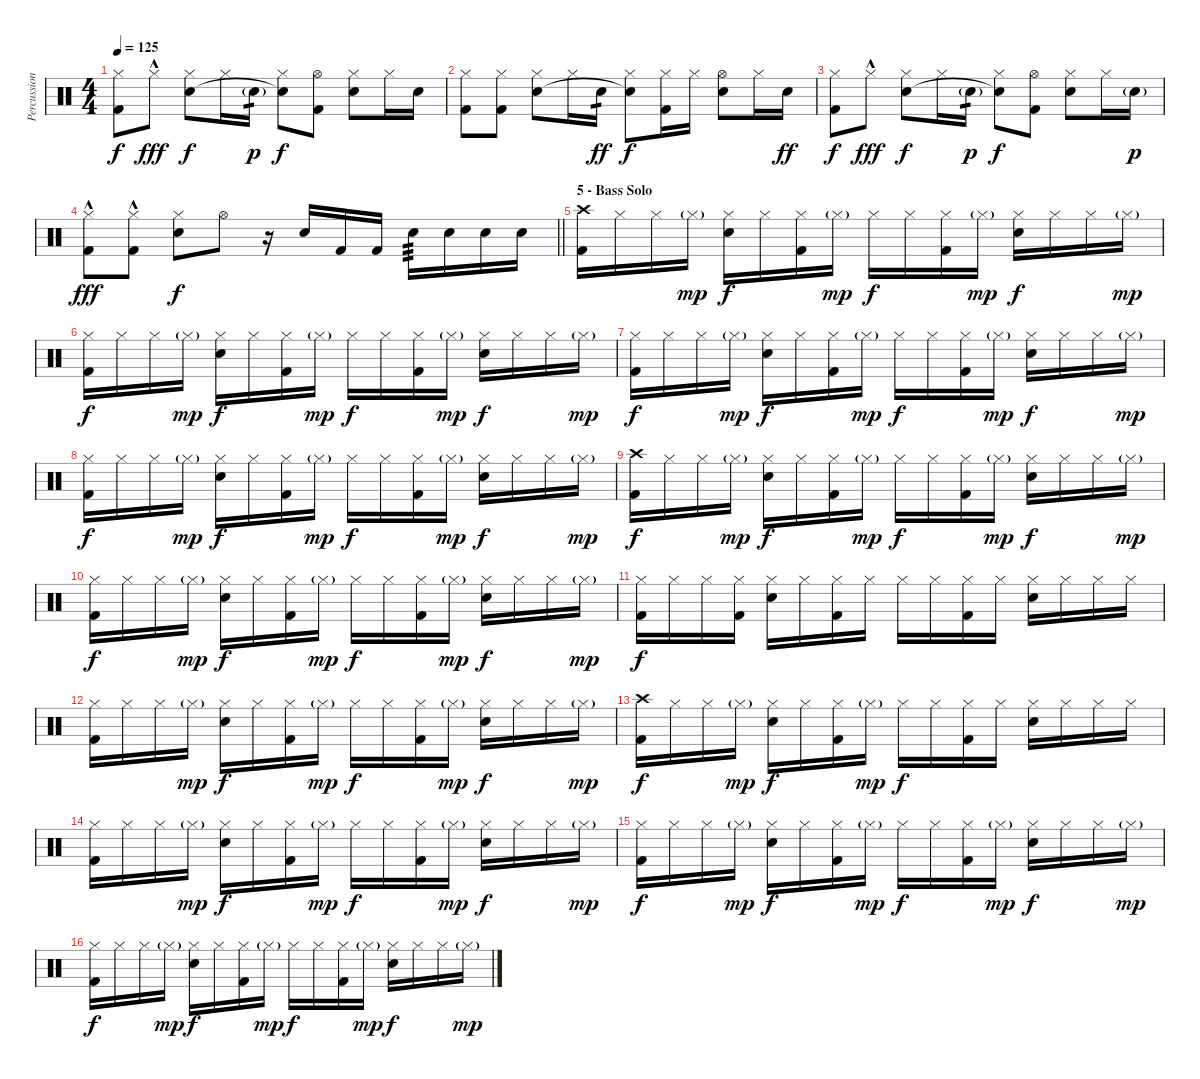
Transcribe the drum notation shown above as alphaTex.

\track ("Percussion" "Percussion") {instrument percussion}
\staff {score}
\articulation defaults
\ts (4 4)
\tempo 125
\clef neutral
\ks c
("Hi-Hat (closed)" "Kick (hit) 2").8{dy f} "Hi-Hat (closed)"{hac}.8{dy fff} ("Hi-Hat (closed)" "Snare (hit) 2").8{dy f} "Hi-Hat (closed)".16 "Snare (hit) 2"{g}.16{tp 1 dy p} ("Hi-Hat (closed)" "Snare (hit)"{t}).8{dy f} ("Hi-Hat (open)" "Kick (hit) 2").8 ("Hi-Hat (closed)" "Snare (hit) 2").8 "Hi-Hat (closed)".16 "Snare (hit) 2".16 |
("Hi-Hat (closed)" "Kick (hit) 2").8 ("Hi-Hat (closed)" "Kick (hit) 2").8 ("Hi-Hat (closed)" "Snare (hit) 2").8 "Hi-Hat (closed)".16 "Snare (hit) 2".16{tp 1 dy ff} ("Hi-Hat (closed)" "Snare (hit)"{t}).8{dy f} ("Hi-Hat (closed)" "Kick (hit) 2").16 "Hi-Hat (closed)".16 ("Hi-Hat (open)" "Snare (hit) 2").8 "Hi-Hat (closed)".16 "Snare (hit) 2".16{dy ff} |
("Hi-Hat (closed)" "Kick (hit) 2").8{dy f} "Hi-Hat (closed)"{hac}.8{dy fff} ("Hi-Hat (closed)" "Snare (hit) 2").8{dy f} "Hi-Hat (closed)".16 "Snare (hit) 2"{g}.16{tp 1 dy p} ("Hi-Hat (closed)" "Snare (hit)"{t}).8{dy f} ("Hi-Hat (open)" "Kick (hit) 2").8 ("Hi-Hat (closed)" "Snare (hit) 2").8 "Hi-Hat (closed)".16 "Snare (hit) 2"{g}.16{dy p} |
\barLineRight lightlight
("Hi-Hat (closed)"{hac} "Kick (hit) 2").8{dy fff} ("Hi-Hat (closed)"{hac} "Kick (hit) 2").8 ("Hi-Hat (closed)" "Snare (hit) 2").8{dy f} "Hi-Hat (open)".8 r.16 "Snare (hit) 2".16 "Kick (hit) 2".16 "Kick (hit) 2".16 "Snare (hit) 2".16{tp 3} "Snare (hit) 2".16 "Snare (hit) 2".16 "Snare (hit) 2".16 |
\section ("" "5 - Bass Solo")
("Crash high (hit)" "Kick (hit) 2").16 "Hi-Hat (closed)".16 "Hi-Hat (closed)".16 "Hi-Hat (closed)"{g}.16{dy mp} ("Hi-Hat (closed)" "Snare (hit) 2").16{dy f} "Hi-Hat (closed)".16 ("Hi-Hat (closed)" "Kick (hit) 2").16 "Hi-Hat (closed)"{g}.16{dy mp} "Hi-Hat (closed)".16{dy f} "Hi-Hat (closed)".16 ("Hi-Hat (closed)" "Kick (hit) 2").16 "Hi-Hat (closed)"{g}.16{dy mp} ("Hi-Hat (closed)" "Snare (hit) 2").16{dy f} "Hi-Hat (closed)".16 "Hi-Hat (closed)".16 "Hi-Hat (closed)"{g}.16{dy mp} |
("Hi-Hat (closed)" "Kick (hit) 2").16{dy f} "Hi-Hat (closed)".16 "Hi-Hat (closed)".16 "Hi-Hat (closed)"{g}.16{dy mp} ("Hi-Hat (closed)" "Snare (hit) 2").16{dy f} "Hi-Hat (closed)".16 ("Hi-Hat (closed)" "Kick (hit) 2").16 "Hi-Hat (closed)"{g}.16{dy mp} "Hi-Hat (closed)".16{dy f} "Hi-Hat (closed)".16 ("Hi-Hat (closed)" "Kick (hit) 2").16 "Hi-Hat (closed)"{g}.16{dy mp} ("Hi-Hat (closed)" "Snare (hit) 2").16{dy f} "Hi-Hat (closed)".16 "Hi-Hat (closed)".16 "Hi-Hat (closed)"{g}.16{dy mp} |
("Hi-Hat (closed)" "Kick (hit) 2").16{dy f} "Hi-Hat (closed)".16 "Hi-Hat (closed)".16 "Hi-Hat (closed)"{g}.16{dy mp} ("Hi-Hat (closed)" "Snare (hit) 2").16{dy f} "Hi-Hat (closed)".16 ("Hi-Hat (closed)" "Kick (hit) 2").16 "Hi-Hat (closed)"{g}.16{dy mp} "Hi-Hat (closed)".16{dy f} "Hi-Hat (closed)".16 ("Hi-Hat (closed)" "Kick (hit) 2").16 "Hi-Hat (closed)"{g}.16{dy mp} ("Hi-Hat (closed)" "Snare (hit) 2").16{dy f} "Hi-Hat (closed)".16 "Hi-Hat (closed)".16 "Hi-Hat (closed)"{g}.16{dy mp} |
("Hi-Hat (closed)" "Kick (hit) 2").16{dy f} "Hi-Hat (closed)".16 "Hi-Hat (closed)".16 "Hi-Hat (closed)"{g}.16{dy mp} ("Hi-Hat (closed)" "Snare (hit) 2").16{dy f} "Hi-Hat (closed)".16 ("Hi-Hat (closed)" "Kick (hit) 2").16 "Hi-Hat (closed)"{g}.16{dy mp} "Hi-Hat (closed)".16{dy f} "Hi-Hat (closed)".16 ("Hi-Hat (closed)" "Kick (hit) 2").16 "Hi-Hat (closed)"{g}.16{dy mp} ("Hi-Hat (closed)" "Snare (hit) 2").16{dy f} "Hi-Hat (closed)".16 "Hi-Hat (closed)".16 "Hi-Hat (closed)"{g}.16{dy mp} |
("Crash high (hit)" "Kick (hit) 2").16{dy f} "Hi-Hat (closed)".16 "Hi-Hat (closed)".16 "Hi-Hat (closed)"{g}.16{dy mp} ("Hi-Hat (closed)" "Snare (hit) 2").16{dy f} "Hi-Hat (closed)".16 ("Hi-Hat (closed)" "Kick (hit) 2").16 "Hi-Hat (closed)"{g}.16{dy mp} "Hi-Hat (closed)".16{dy f} "Hi-Hat (closed)".16 ("Hi-Hat (closed)" "Kick (hit) 2").16 "Hi-Hat (closed)"{g}.16{dy mp} ("Hi-Hat (closed)" "Snare (hit) 2").16{dy f} "Hi-Hat (closed)".16 "Hi-Hat (closed)".16 "Hi-Hat (closed)"{g}.16{dy mp} |
("Hi-Hat (closed)" "Kick (hit) 2").16{dy f} "Hi-Hat (closed)".16 "Hi-Hat (closed)".16 "Hi-Hat (closed)"{g}.16{dy mp} ("Hi-Hat (closed)" "Snare (hit) 2").16{dy f} "Hi-Hat (closed)".16 ("Hi-Hat (closed)" "Kick (hit) 2").16 "Hi-Hat (closed)"{g}.16{dy mp} "Hi-Hat (closed)".16{dy f} "Hi-Hat (closed)".16 ("Hi-Hat (closed)" "Kick (hit) 2").16 "Hi-Hat (closed)"{g}.16{dy mp} ("Hi-Hat (closed)" "Snare (hit) 2").16{dy f} "Hi-Hat (closed)".16 "Hi-Hat (closed)".16 "Hi-Hat (closed)"{g}.16{dy mp} |
("Hi-Hat (closed)" "Kick (hit) 2").16{dy f} "Hi-Hat (closed)".16 "Hi-Hat (closed)".16 ("Hi-Hat (closed)" "Kick (hit) 2").16 ("Hi-Hat (closed)" "Snare (hit) 2").16 "Hi-Hat (closed)".16 ("Hi-Hat (closed)" "Kick (hit) 2").16 "Hi-Hat (closed)".16 "Hi-Hat (closed)".16 "Hi-Hat (closed)".16 ("Hi-Hat (closed)" "Kick (hit) 2").16 "Hi-Hat (closed)".16 ("Hi-Hat (closed)" "Snare (hit) 2").16 "Hi-Hat (closed)".16 "Hi-Hat (closed)".16 "Hi-Hat (closed)".16 |
("Hi-Hat (closed)" "Kick (hit) 2").16 "Hi-Hat (closed)".16 "Hi-Hat (closed)".16 "Hi-Hat (closed)"{g}.16{dy mp} ("Hi-Hat (closed)" "Snare (hit) 2").16{dy f} "Hi-Hat (closed)".16 ("Hi-Hat (closed)" "Kick (hit) 2").16 "Hi-Hat (closed)"{g}.16{dy mp} "Hi-Hat (closed)".16{dy f} "Hi-Hat (closed)".16 ("Hi-Hat (closed)" "Kick (hit) 2").16 "Hi-Hat (closed)"{g}.16{dy mp} ("Hi-Hat (closed)" "Snare (hit) 2").16{dy f} "Hi-Hat (closed)".16 "Hi-Hat (closed)".16 "Hi-Hat (closed)"{g}.16{dy mp} |
("Crash high (hit)" "Kick (hit) 2").16{dy f} "Hi-Hat (closed)".16 "Hi-Hat (closed)".16 "Hi-Hat (closed)"{g}.16{dy mp} ("Hi-Hat (closed)" "Snare (hit) 2").16{dy f} "Hi-Hat (closed)".16 ("Hi-Hat (closed)" "Kick (hit) 2").16 "Hi-Hat (closed)"{g}.16{dy mp} "Hi-Hat (closed)".16{dy f} "Hi-Hat (closed)".16 ("Hi-Hat (closed)" "Kick (hit) 2").16 "Hi-Hat (closed)".16 ("Hi-Hat (closed)" "Snare (hit) 2").16 "Hi-Hat (closed)".16 "Hi-Hat (closed)".16 "Hi-Hat (closed)".16 |
("Hi-Hat (closed)" "Kick (hit) 2").16 "Hi-Hat (closed)".16 "Hi-Hat (closed)".16 "Hi-Hat (closed)"{g}.16{dy mp} ("Hi-Hat (closed)" "Snare (hit) 2").16{dy f} "Hi-Hat (closed)".16 ("Hi-Hat (closed)" "Kick (hit) 2").16 "Hi-Hat (closed)"{g}.16{dy mp} "Hi-Hat (closed)".16{dy f} "Hi-Hat (closed)".16 ("Hi-Hat (closed)" "Kick (hit) 2").16 "Hi-Hat (closed)"{g}.16{dy mp} ("Hi-Hat (closed)" "Snare (hit) 2").16{dy f} "Hi-Hat (closed)".16 "Hi-Hat (closed)".16 "Hi-Hat (closed)"{g}.16{dy mp} |
("Hi-Hat (closed)" "Kick (hit) 2").16{dy f} "Hi-Hat (closed)".16 "Hi-Hat (closed)".16 "Hi-Hat (closed)"{g}.16{dy mp} ("Hi-Hat (closed)" "Snare (hit) 2").16{dy f} "Hi-Hat (closed)".16 ("Hi-Hat (closed)" "Kick (hit) 2").16 "Hi-Hat (closed)"{g}.16{dy mp} "Hi-Hat (closed)".16{dy f} "Hi-Hat (closed)".16 ("Hi-Hat (closed)" "Kick (hit) 2").16 "Hi-Hat (closed)"{g}.16{dy mp} ("Hi-Hat (closed)" "Snare (hit) 2").16{dy f} "Hi-Hat (closed)".16 "Hi-Hat (closed)".16 "Hi-Hat (closed)"{g}.16{dy mp} |
("Hi-Hat (closed)" "Kick (hit) 2").16{dy f} "Hi-Hat (closed)".16 "Hi-Hat (closed)".16 "Hi-Hat (closed)"{g}.16{dy mp} ("Hi-Hat (closed)" "Snare (hit) 2").16{dy f} "Hi-Hat (closed)".16 ("Hi-Hat (closed)" "Kick (hit) 2").16 "Hi-Hat (closed)"{g}.16{dy mp} "Hi-Hat (closed)".16{dy f} "Hi-Hat (closed)".16 ("Hi-Hat (closed)" "Kick (hit) 2").16 "Hi-Hat (closed)"{g}.16{dy mp} ("Hi-Hat (closed)" "Snare (hit) 2").16{dy f} "Hi-Hat (closed)".16 "Hi-Hat (closed)".16 "Hi-Hat (closed)"{g}.16{dy mp}
